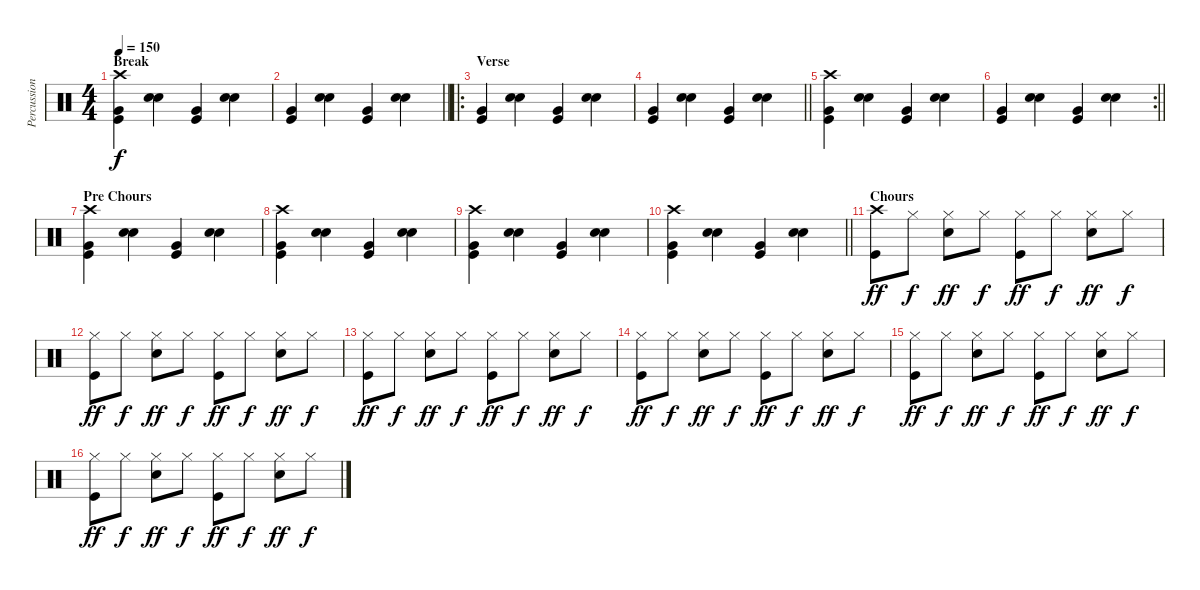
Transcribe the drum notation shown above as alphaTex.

\track ("Percussion" "Percussion") {instrument percussion}
\staff {score}
\articulation defaults
\ts (4 4)
\section ("" "Break")
\tempo 150
\clef neutral
\ks c
("Kick (hit)" "Very Low Tom (hit)" "Crash high (hit)").4{dy f} ("Snare (hit) 2" "Snare (hit) 2").4 ("Kick (hit)" "Very Low Tom (hit)").4 ("Snare (hit) 2" "Snare (hit) 2").4 |
\barLineRight lightlight
("Kick (hit)" "Very Low Tom (hit)").4 ("Snare (hit) 2" "Snare (hit) 2").4 ("Kick (hit)" "Very Low Tom (hit)").4 ("Snare (hit) 2" "Snare (hit) 2").4 |
\ro
\section ("" "Verse")
("Kick (hit)" "Very Low Tom (hit)").4 ("Snare (hit) 2" "Snare (hit) 2").4 ("Kick (hit)" "Very Low Tom (hit)").4 ("Snare (hit) 2" "Snare (hit) 2").4 |
\barLineRight lightlight
("Kick (hit)" "Very Low Tom (hit)").4 ("Snare (hit) 2" "Snare (hit) 2").4 ("Kick (hit)" "Very Low Tom (hit)").4 ("Snare (hit) 2" "Snare (hit) 2").4 |
("Kick (hit)" "Very Low Tom (hit)" "Crash high (hit)").4 ("Snare (hit) 2" "Snare (hit) 2").4 ("Kick (hit)" "Very Low Tom (hit)").4 ("Snare (hit) 2" "Snare (hit) 2").4 |
\rc 2
\barLineRight lightlight
("Kick (hit)" "Very Low Tom (hit)").4 ("Snare (hit) 2" "Snare (hit) 2").4 ("Kick (hit)" "Very Low Tom (hit)").4 ("Snare (hit) 2" "Snare (hit) 2").4 |
\section ("" "Pre Chours")
("Kick (hit)" "Very Low Tom (hit)" "Crash high (hit)").4 ("Snare (hit) 2" "Snare (hit) 2").4 ("Kick (hit)" "Very Low Tom (hit)").4 ("Snare (hit) 2" "Snare (hit) 2").4 |
("Kick (hit)" "Very Low Tom (hit)" "Crash high (hit)").4 ("Snare (hit) 2" "Snare (hit) 2").4 ("Kick (hit)" "Very Low Tom (hit)").4 ("Snare (hit) 2" "Snare (hit) 2").4 |
("Kick (hit)" "Very Low Tom (hit)" "Crash high (hit)").4 ("Snare (hit) 2" "Snare (hit) 2").4 ("Kick (hit)" "Very Low Tom (hit)").4 ("Snare (hit) 2" "Snare (hit) 2").4 |
\barLineRight lightlight
("Kick (hit)" "Very Low Tom (hit)" "Crash high (hit)").4 ("Snare (hit) 2" "Snare (hit) 2").4 ("Kick (hit)" "Very Low Tom (hit)").4 ("Snare (hit) 2" "Snare (hit) 2").4 |
\section ("" "Chours")
("Crash high (hit)" "Kick (hit)").8{dy ff} "Hi-Hat (closed)".8{dy f} ("Hi-Hat (closed)" "Snare (hit) 2").8{dy ff} "Hi-Hat (closed)".8{dy f} ("Hi-Hat (closed)" "Kick (hit)").8{dy ff} "Hi-Hat (closed)".8{dy f} ("Hi-Hat (closed)" "Snare (hit) 2").8{dy ff} "Hi-Hat (closed)".8{dy f} |
("Hi-Hat (closed)" "Kick (hit)").8{dy ff} "Hi-Hat (closed)".8{dy f} ("Hi-Hat (closed)" "Snare (hit) 2").8{dy ff} "Hi-Hat (closed)".8{dy f} ("Hi-Hat (closed)" "Kick (hit)").8{dy ff} "Hi-Hat (closed)".8{dy f} ("Hi-Hat (closed)" "Snare (hit) 2").8{dy ff} "Hi-Hat (closed)".8{dy f} |
("Hi-Hat (closed)" "Kick (hit)").8{dy ff} "Hi-Hat (closed)".8{dy f} ("Hi-Hat (closed)" "Snare (hit) 2").8{dy ff} "Hi-Hat (closed)".8{dy f} ("Hi-Hat (closed)" "Kick (hit)").8{dy ff} "Hi-Hat (closed)".8{dy f} ("Hi-Hat (closed)" "Snare (hit) 2").8{dy ff} "Hi-Hat (closed)".8{dy f} |
("Hi-Hat (closed)" "Kick (hit)").8{dy ff} "Hi-Hat (closed)".8{dy f} ("Hi-Hat (closed)" "Snare (hit) 2").8{dy ff} "Hi-Hat (closed)".8{dy f} ("Hi-Hat (closed)" "Kick (hit)").8{dy ff} "Hi-Hat (closed)".8{dy f} ("Hi-Hat (closed)" "Snare (hit) 2").8{dy ff} "Hi-Hat (closed)".8{dy f} |
("Hi-Hat (closed)" "Kick (hit)").8{dy ff} "Hi-Hat (closed)".8{dy f} ("Hi-Hat (closed)" "Snare (hit) 2").8{dy ff} "Hi-Hat (closed)".8{dy f} ("Hi-Hat (closed)" "Kick (hit)").8{dy ff} "Hi-Hat (closed)".8{dy f} ("Hi-Hat (closed)" "Snare (hit) 2").8{dy ff} "Hi-Hat (closed)".8{dy f} |
("Hi-Hat (closed)" "Kick (hit)").8{dy ff} "Hi-Hat (closed)".8{dy f} ("Hi-Hat (closed)" "Snare (hit) 2").8{dy ff} "Hi-Hat (closed)".8{dy f} ("Hi-Hat (closed)" "Kick (hit)").8{dy ff} "Hi-Hat (closed)".8{dy f} ("Hi-Hat (closed)" "Snare (hit) 2").8{dy ff} "Hi-Hat (closed)".8{dy f}
